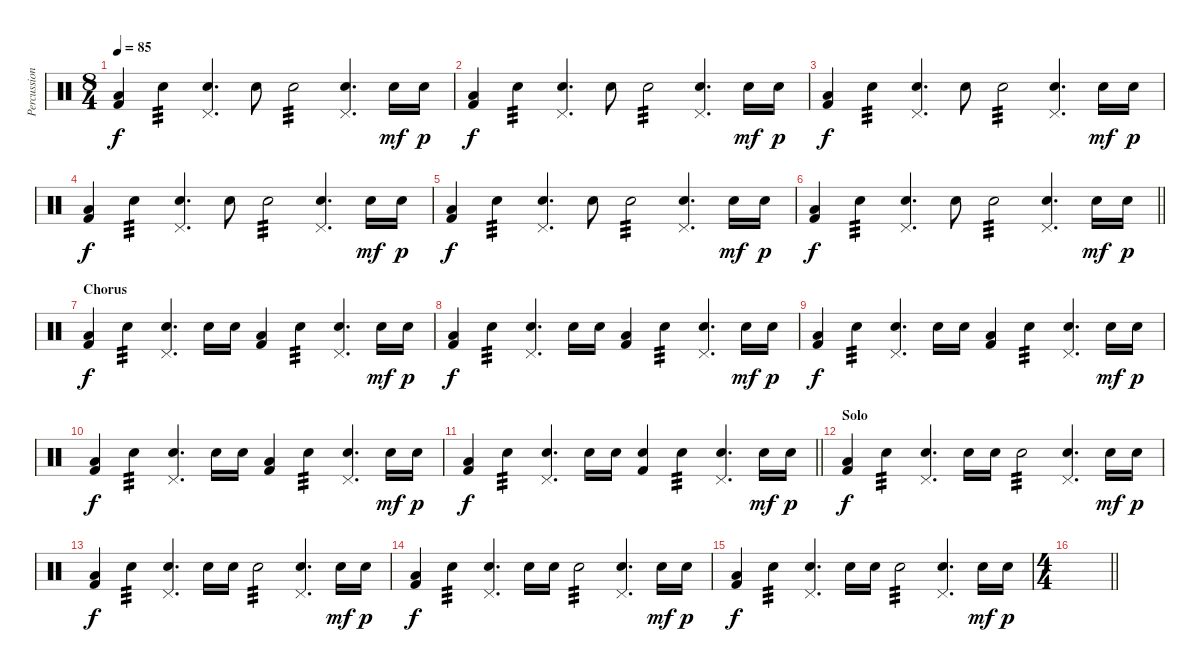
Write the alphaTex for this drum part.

\track ("Percussion" "Percussion") {instrument percussion}
\staff {score}
\articulation defaults
\ts (8 4)
\tempo 85
\clef neutral
\ks c
("Kick (hit) 2" "Low Floor Tom (hit)").4{dy f} "Electric Snare (hit)".4{tp 3} ("Pedal Hi-Hat (hit)" "Electric Snare (hit)").4{d} "Electric Snare (hit)".8 "Electric Snare (hit)".2{tp 3} ("Pedal Hi-Hat (hit)" "Electric Snare (hit)").4{d} "Electric Snare (hit)".16{dy mf} "Electric Snare (hit)".16{dy p} |
("Kick (hit) 2" "Low Floor Tom (hit)").4{dy f} "Electric Snare (hit)".4{tp 3} ("Pedal Hi-Hat (hit)" "Electric Snare (hit)").4{d} "Electric Snare (hit)".8 "Electric Snare (hit)".2{tp 3} ("Pedal Hi-Hat (hit)" "Electric Snare (hit)").4{d} "Electric Snare (hit)".16{dy mf} "Electric Snare (hit)".16{dy p} |
("Kick (hit) 2" "Low Floor Tom (hit)").4{dy f} "Electric Snare (hit)".4{tp 3} ("Pedal Hi-Hat (hit)" "Electric Snare (hit)").4{d} "Electric Snare (hit)".8 "Electric Snare (hit)".2{tp 3} ("Pedal Hi-Hat (hit)" "Electric Snare (hit)").4{d} "Electric Snare (hit)".16{dy mf} "Electric Snare (hit)".16{dy p} |
("Kick (hit) 2" "Low Floor Tom (hit)").4{dy f} "Electric Snare (hit)".4{tp 3} ("Pedal Hi-Hat (hit)" "Electric Snare (hit)").4{d} "Electric Snare (hit)".8 "Electric Snare (hit)".2{tp 3} ("Pedal Hi-Hat (hit)" "Electric Snare (hit)").4{d} "Electric Snare (hit)".16{dy mf} "Electric Snare (hit)".16{dy p} |
("Kick (hit) 2" "Low Floor Tom (hit)").4{dy f} "Electric Snare (hit)".4{tp 3} ("Pedal Hi-Hat (hit)" "Electric Snare (hit)").4{d} "Electric Snare (hit)".8 "Electric Snare (hit)".2{tp 3} ("Pedal Hi-Hat (hit)" "Electric Snare (hit)").4{d} "Electric Snare (hit)".16{dy mf} "Electric Snare (hit)".16{dy p} |
\barLineRight lightlight
("Kick (hit) 2" "Low Floor Tom (hit)").4{dy f} "Electric Snare (hit)".4{tp 3} ("Pedal Hi-Hat (hit)" "Electric Snare (hit)").4{d} "Electric Snare (hit)".8 "Electric Snare (hit)".2{tp 3} ("Pedal Hi-Hat (hit)" "Electric Snare (hit)").4{d} "Electric Snare (hit)".16{dy mf} "Electric Snare (hit)".16{dy p} |
\section ("" "Chorus")
("Kick (hit) 2" "Low Floor Tom (hit)").4{dy f} "Electric Snare (hit)".4{tp 3} ("Pedal Hi-Hat (hit)" "Electric Snare (hit)").4{d} "Electric Snare (hit)".16 "Electric Snare (hit)".16 ("Low Floor Tom (hit)" "Kick (hit) 2").4 "Electric Snare (hit)".4{tp 3} ("Pedal Hi-Hat (hit)" "Electric Snare (hit)").4{d} "Electric Snare (hit)".16{dy mf} "Electric Snare (hit)".16{dy p} |
("Kick (hit) 2" "Low Floor Tom (hit)").4{dy f} "Electric Snare (hit)".4{tp 3} ("Pedal Hi-Hat (hit)" "Electric Snare (hit)").4{d} "Electric Snare (hit)".16 "Electric Snare (hit)".16 ("Low Floor Tom (hit)" "Kick (hit) 2").4 "Electric Snare (hit)".4{tp 3} ("Pedal Hi-Hat (hit)" "Electric Snare (hit)").4{d} "Electric Snare (hit)".16{dy mf} "Electric Snare (hit)".16{dy p} |
("Kick (hit) 2" "Low Floor Tom (hit)").4{dy f} "Electric Snare (hit)".4{tp 3} ("Pedal Hi-Hat (hit)" "Electric Snare (hit)").4{d} "Electric Snare (hit)".16 "Electric Snare (hit)".16 ("Low Floor Tom (hit)" "Kick (hit) 2").4 "Electric Snare (hit)".4{tp 3} ("Pedal Hi-Hat (hit)" "Electric Snare (hit)").4{d} "Electric Snare (hit)".16{dy mf} "Electric Snare (hit)".16{dy p} |
("Kick (hit) 2" "Low Floor Tom (hit)").4{dy f} "Electric Snare (hit)".4{tp 3} ("Pedal Hi-Hat (hit)" "Electric Snare (hit)").4{d} "Electric Snare (hit)".16 "Electric Snare (hit)".16 ("Low Floor Tom (hit)" "Kick (hit) 2").4 "Electric Snare (hit)".4{tp 3} ("Pedal Hi-Hat (hit)" "Electric Snare (hit)").4{d} "Electric Snare (hit)".16{dy mf} "Electric Snare (hit)".16{dy p} |
\barLineRight lightlight
("Kick (hit) 2" "Low Floor Tom (hit)").4{dy f} "Electric Snare (hit)".4{tp 3} ("Pedal Hi-Hat (hit)" "Electric Snare (hit)").4{d} "Electric Snare (hit)".16 "Electric Snare (hit)".16 ("Electric Snare (hit)" "Kick (hit) 2").4 "Electric Snare (hit)".4{tp 3} ("Pedal Hi-Hat (hit)" "Electric Snare (hit)").4{d} "Electric Snare (hit)".16{dy mf} "Electric Snare (hit)".16{dy p} |
\section ("" "Solo")
("Kick (hit) 2" "Low Floor Tom (hit)").4{dy f} "Electric Snare (hit)".4{tp 3} ("Pedal Hi-Hat (hit)" "Electric Snare (hit)").4{d} "Electric Snare (hit)".16 "Electric Snare (hit)".16 "Electric Snare (hit)".2{tp 3} ("Pedal Hi-Hat (hit)" "Electric Snare (hit)").4{d} "Electric Snare (hit)".16{dy mf} "Electric Snare (hit)".16{dy p} |
("Kick (hit) 2" "Low Floor Tom (hit)").4{dy f} "Electric Snare (hit)".4{tp 3} ("Pedal Hi-Hat (hit)" "Electric Snare (hit)").4{d} "Electric Snare (hit)".16 "Electric Snare (hit)".16 "Electric Snare (hit)".2{tp 3} ("Pedal Hi-Hat (hit)" "Electric Snare (hit)").4{d} "Electric Snare (hit)".16{dy mf} "Electric Snare (hit)".16{dy p} |
("Kick (hit) 2" "Low Floor Tom (hit)").4{dy f} "Electric Snare (hit)".4{tp 3} ("Pedal Hi-Hat (hit)" "Electric Snare (hit)").4{d} "Electric Snare (hit)".16 "Electric Snare (hit)".16 "Electric Snare (hit)".2{tp 3} ("Pedal Hi-Hat (hit)" "Electric Snare (hit)").4{d} "Electric Snare (hit)".16{dy mf} "Electric Snare (hit)".16{dy p} |
("Kick (hit) 2" "Low Floor Tom (hit)").4{dy f} "Electric Snare (hit)".4{tp 3} ("Pedal Hi-Hat (hit)" "Electric Snare (hit)").4{d} "Electric Snare (hit)".16 "Electric Snare (hit)".16 "Electric Snare (hit)".2{tp 3} ("Pedal Hi-Hat (hit)" "Electric Snare (hit)").4{d} "Electric Snare (hit)".16{dy mf} "Electric Snare (hit)".16{dy p} |
\ts (4 4)
\barLineRight lightlight
